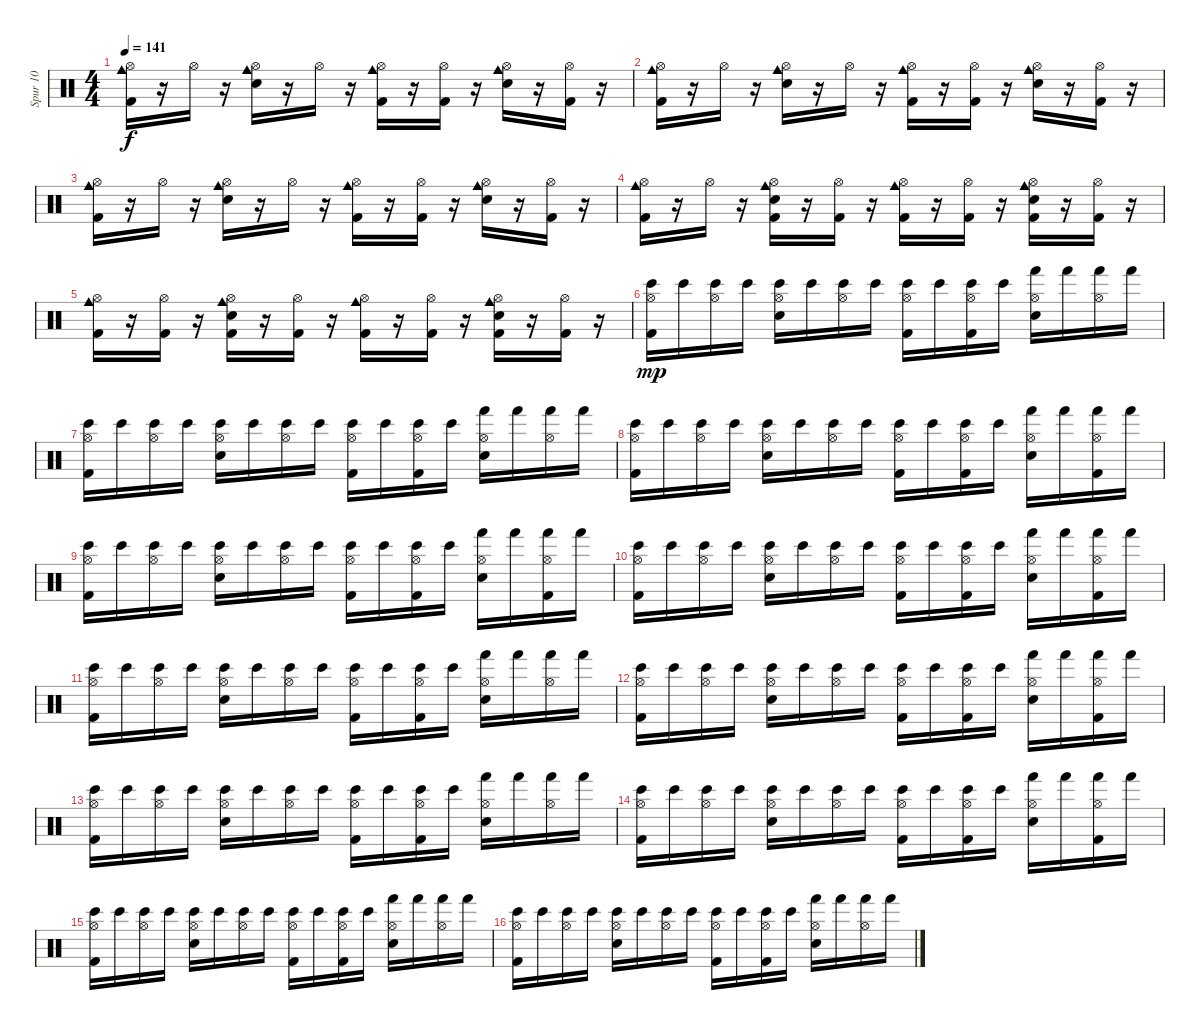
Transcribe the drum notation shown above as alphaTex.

\track ("Spur 10" "Spur 10") {instrument percussion}
\staff {score}
\articulation defaults
\ts (4 4)
\tempo 141
\clef neutral
\ks c
("Cowbell medium (hit)" "Kick (hit) 2" "Hi-Hat (open)").16{dy f} r.16 "Hi-Hat (open)".16 r.16 ("Cowbell medium (hit)" "Snare (hit) 2" "Hi-Hat (open)").16 r.16 "Hi-Hat (open)".16 r.16 ("Cowbell medium (hit)" "Kick (hit) 2" "Hi-Hat (open)").16 r.16 ("Kick (hit) 2" "Hi-Hat (open)").16 r.16 ("Cowbell medium (hit)" "Snare (hit) 2" "Hi-Hat (open)").16 r.16 ("Kick (hit) 2" "Hi-Hat (open)").16 r.16 |
("Cowbell medium (hit)" "Kick (hit) 2" "Hi-Hat (open)").16 r.16 "Hi-Hat (open)".16 r.16 ("Cowbell medium (hit)" "Snare (hit) 2" "Hi-Hat (open)").16 r.16 "Hi-Hat (open)".16 r.16 ("Cowbell medium (hit)" "Kick (hit) 2" "Hi-Hat (open)").16 r.16 ("Kick (hit) 2" "Hi-Hat (open)").16 r.16 ("Cowbell medium (hit)" "Snare (hit) 2" "Hi-Hat (open)").16 r.16 ("Kick (hit) 2" "Hi-Hat (open)").16 r.16 |
("Cowbell medium (hit)" "Kick (hit) 2" "Hi-Hat (open)").16 r.16 "Hi-Hat (open)".16 r.16 ("Cowbell medium (hit)" "Snare (hit) 2" "Hi-Hat (open)").16 r.16 "Hi-Hat (open)".16 r.16 ("Cowbell medium (hit)" "Kick (hit) 2" "Hi-Hat (open)").16 r.16 ("Kick (hit) 2" "Hi-Hat (open)").16 r.16 ("Cowbell medium (hit)" "Snare (hit) 2" "Hi-Hat (open)").16 r.16 ("Kick (hit) 2" "Hi-Hat (open)").16 r.16 |
("Cowbell medium (hit)" "Kick (hit) 2" "Hi-Hat (open)").16 r.16 "Hi-Hat (open)".16 r.16 ("Cowbell medium (hit)" "Kick (hit) 2" "Snare (hit) 2" "Hi-Hat (open)").16 r.16 ("Kick (hit) 2" "Hi-Hat (open)").16 r.16 ("Cowbell medium (hit)" "Kick (hit) 2" "Hi-Hat (open)").16 r.16 ("Kick (hit) 2" "Hi-Hat (open)").16 r.16 ("Cowbell medium (hit)" "Kick (hit) 2" "Snare (hit) 2" "Hi-Hat (open)").16 r.16 ("Kick (hit) 2" "Hi-Hat (open)").16 r.16 |
("Cowbell medium (hit)" "Kick (hit) 2" "Hi-Hat (open)").16 r.16 ("Kick (hit) 2" "Hi-Hat (open)").16 r.16 ("Cowbell medium (hit)" "Kick (hit) 2" "Snare (hit) 2" "Hi-Hat (open)").16 r.16 ("Hi-Hat (open)" "Kick (hit) 2").16 r.16 ("Cowbell medium (hit)" "Kick (hit) 2" "Hi-Hat (open)").16 r.16 ("Kick (hit) 2" "Hi-Hat (open)").16 r.16 ("Cowbell medium (hit)" "Kick (hit) 2" "Snare (hit) 2" "Hi-Hat (open)").16 r.16 ("Kick (hit) 2" "Hi-Hat (open)").16 r.16 |
("Bongo High (hit)" "Kick (hit) 2" "Hi-Hat (open)").16{dy mp} "Bongo High (hit)".16 ("Bongo High (hit)" "Hi-Hat (open)").16 "Bongo High (hit)".16 ("Bongo High (hit)" "Snare (hit) 2" "Hi-Hat (open)").16 "Bongo High (hit)".16 ("Bongo High (hit)" "Hi-Hat (open)").16 "Bongo High (hit)".16 ("Bongo High (hit)" "Kick (hit) 2" "Hi-Hat (open)").16 "Bongo High (hit)".16 ("Bongo High (hit)" "Kick (hit) 2" "Hi-Hat (open)").16 "Bongo High (hit)".16 ("Hand (hit)" "Snare (hit) 2" "Hi-Hat (open)").16 "Hand (hit)".16 ("Hand (hit)" "Hi-Hat (open)").16 "Hand (hit)".16 |
("Bongo High (hit)" "Kick (hit) 2" "Hi-Hat (open)").16 "Bongo High (hit)".16 ("Bongo High (hit)" "Hi-Hat (open)").16 "Bongo High (hit)".16 ("Bongo High (hit)" "Snare (hit) 2" "Hi-Hat (open)").16 "Bongo High (hit)".16 ("Bongo High (hit)" "Hi-Hat (open)").16 "Bongo High (hit)".16 ("Bongo High (hit)" "Kick (hit) 2" "Hi-Hat (open)").16 "Bongo High (hit)".16 ("Bongo High (hit)" "Kick (hit) 2" "Hi-Hat (open)").16 "Bongo High (hit)".16 ("Hand (hit)" "Snare (hit) 2" "Hi-Hat (open)").16 "Hand (hit)".16 ("Hand (hit)" "Hi-Hat (open)").16 "Hand (hit)".16 |
("Bongo High (hit)" "Kick (hit) 2" "Hi-Hat (open)").16 "Bongo High (hit)".16 ("Bongo High (hit)" "Hi-Hat (open)").16 "Bongo High (hit)".16 ("Bongo High (hit)" "Snare (hit) 2" "Hi-Hat (open)").16 "Bongo High (hit)".16 ("Bongo High (hit)" "Hi-Hat (open)").16 "Bongo High (hit)".16 ("Bongo High (hit)" "Kick (hit) 2" "Hi-Hat (open)").16 "Bongo High (hit)".16 ("Bongo High (hit)" "Kick (hit) 2" "Hi-Hat (open)").16 "Bongo High (hit)".16 ("Hand (hit)" "Snare (hit) 2" "Hi-Hat (open)").16 "Hand (hit)".16 ("Hand (hit)" "Kick (hit) 2" "Hi-Hat (open)").16 "Hand (hit)".16 |
("Bongo High (hit)" "Kick (hit) 2" "Hi-Hat (open)").16 "Bongo High (hit)".16 ("Bongo High (hit)" "Hi-Hat (open)").16 "Bongo High (hit)".16 ("Bongo High (hit)" "Snare (hit) 2" "Hi-Hat (open)").16 "Bongo High (hit)".16 ("Bongo High (hit)" "Hi-Hat (open)").16 "Bongo High (hit)".16 ("Bongo High (hit)" "Kick (hit) 2" "Hi-Hat (open)").16 "Bongo High (hit)".16 ("Bongo High (hit)" "Kick (hit) 2" "Hi-Hat (open)").16 "Bongo High (hit)".16 ("Hand (hit)" "Snare (hit) 2" "Hi-Hat (open)").16 "Hand (hit)".16 ("Hand (hit)" "Hi-Hat (open)" "Kick (hit) 2").16 "Hand (hit)".16 |
("Bongo High (hit)" "Kick (hit) 2" "Hi-Hat (open)").16 "Bongo High (hit)".16 ("Bongo High (hit)" "Hi-Hat (open)").16 "Bongo High (hit)".16 ("Bongo High (hit)" "Snare (hit) 2" "Hi-Hat (open)").16 "Bongo High (hit)".16 ("Bongo High (hit)" "Hi-Hat (open)").16 "Bongo High (hit)".16 ("Bongo High (hit)" "Kick (hit) 2" "Hi-Hat (open)").16 "Bongo High (hit)".16 ("Bongo High (hit)" "Kick (hit) 2" "Hi-Hat (open)").16 "Bongo High (hit)".16 ("Hand (hit)" "Snare (hit) 2" "Hi-Hat (open)").16 "Hand (hit)".16 ("Hand (hit)" "Kick (hit) 2" "Hi-Hat (open)").16 "Hand (hit)".16 |
("Bongo High (hit)" "Kick (hit) 2" "Hi-Hat (open)").16 "Bongo High (hit)".16 ("Bongo High (hit)" "Hi-Hat (open)").16 "Bongo High (hit)".16 ("Bongo High (hit)" "Snare (hit) 2" "Hi-Hat (open)").16 "Bongo High (hit)".16 ("Bongo High (hit)" "Hi-Hat (open)").16 "Bongo High (hit)".16 ("Bongo High (hit)" "Kick (hit) 2" "Hi-Hat (open)").16 "Bongo High (hit)".16 ("Bongo High (hit)" "Kick (hit) 2" "Hi-Hat (open)").16 "Bongo High (hit)".16 ("Hand (hit)" "Snare (hit) 2" "Hi-Hat (open)").16 "Hand (hit)".16 ("Hand (hit)" "Hi-Hat (open)").16 "Hand (hit)".16 |
("Bongo High (hit)" "Kick (hit) 2" "Hi-Hat (open)").16 "Bongo High (hit)".16 ("Bongo High (hit)" "Hi-Hat (open)").16 "Bongo High (hit)".16 ("Bongo High (hit)" "Snare (hit) 2" "Hi-Hat (open)").16 "Bongo High (hit)".16 ("Bongo High (hit)" "Hi-Hat (open)").16 "Bongo High (hit)".16 ("Bongo High (hit)" "Kick (hit) 2" "Hi-Hat (open)").16 "Bongo High (hit)".16 ("Bongo High (hit)" "Kick (hit) 2" "Hi-Hat (open)").16 "Bongo High (hit)".16 ("Hand (hit)" "Snare (hit) 2" "Hi-Hat (open)").16 "Hand (hit)".16 ("Hand (hit)" "Kick (hit) 2" "Hi-Hat (open)").16 "Hand (hit)".16 |
("Bongo High (hit)" "Kick (hit) 2" "Hi-Hat (open)").16 "Bongo High (hit)".16 ("Bongo High (hit)" "Hi-Hat (open)").16 "Bongo High (hit)".16 ("Bongo High (hit)" "Snare (hit) 2" "Hi-Hat (open)").16 "Bongo High (hit)".16 ("Bongo High (hit)" "Hi-Hat (open)").16 "Bongo High (hit)".16 ("Bongo High (hit)" "Kick (hit) 2" "Hi-Hat (open)").16 "Bongo High (hit)".16 ("Bongo High (hit)" "Kick (hit) 2" "Hi-Hat (open)").16 "Bongo High (hit)".16 ("Hand (hit)" "Snare (hit) 2" "Hi-Hat (open)").16 "Hand (hit)".16 ("Hand (hit)" "Hi-Hat (open)").16 "Hand (hit)".16 |
("Bongo High (hit)" "Kick (hit) 2" "Hi-Hat (open)").16 "Bongo High (hit)".16 ("Bongo High (hit)" "Hi-Hat (open)").16 "Bongo High (hit)".16 ("Bongo High (hit)" "Snare (hit) 2" "Hi-Hat (open)").16 "Bongo High (hit)".16 ("Bongo High (hit)" "Hi-Hat (open)").16 "Bongo High (hit)".16 ("Bongo High (hit)" "Kick (hit) 2" "Hi-Hat (open)").16 "Bongo High (hit)".16 ("Bongo High (hit)" "Kick (hit) 2" "Hi-Hat (open)").16 "Bongo High (hit)".16 ("Hand (hit)" "Snare (hit) 2" "Hi-Hat (open)").16 "Hand (hit)".16 ("Hand (hit)" "Kick (hit) 2" "Hi-Hat (open)").16 "Hand (hit)".16 |
("Bongo High (hit)" "Kick (hit) 2" "Hi-Hat (open)").16 "Bongo High (hit)".16 ("Bongo High (hit)" "Hi-Hat (open)").16 "Bongo High (hit)".16 ("Bongo High (hit)" "Snare (hit) 2" "Hi-Hat (open)").16 "Bongo High (hit)".16 ("Bongo High (hit)" "Hi-Hat (open)").16 "Bongo High (hit)".16 ("Bongo High (hit)" "Kick (hit) 2" "Hi-Hat (open)").16 "Bongo High (hit)".16 ("Bongo High (hit)" "Kick (hit) 2" "Hi-Hat (open)").16 "Bongo High (hit)".16 ("Hand (hit)" "Snare (hit) 2" "Hi-Hat (open)").16 "Hand (hit)".16 ("Hand (hit)" "Hi-Hat (open)").16 "Hand (hit)".16 |
("Bongo High (hit)" "Kick (hit) 2" "Hi-Hat (open)").16 "Bongo High (hit)".16 ("Bongo High (hit)" "Hi-Hat (open)").16 "Bongo High (hit)".16 ("Bongo High (hit)" "Snare (hit) 2" "Hi-Hat (open)").16 "Bongo High (hit)".16 ("Bongo High (hit)" "Hi-Hat (open)").16 "Bongo High (hit)".16 ("Bongo High (hit)" "Kick (hit) 2" "Hi-Hat (open)").16 "Bongo High (hit)".16 ("Bongo High (hit)" "Kick (hit) 2" "Hi-Hat (open)").16 "Bongo High (hit)".16 ("Hand (hit)" "Snare (hit) 2" "Hi-Hat (open)").16 "Hand (hit)".16 ("Hand (hit)" "Hi-Hat (open)").16 "Hand (hit)".16
